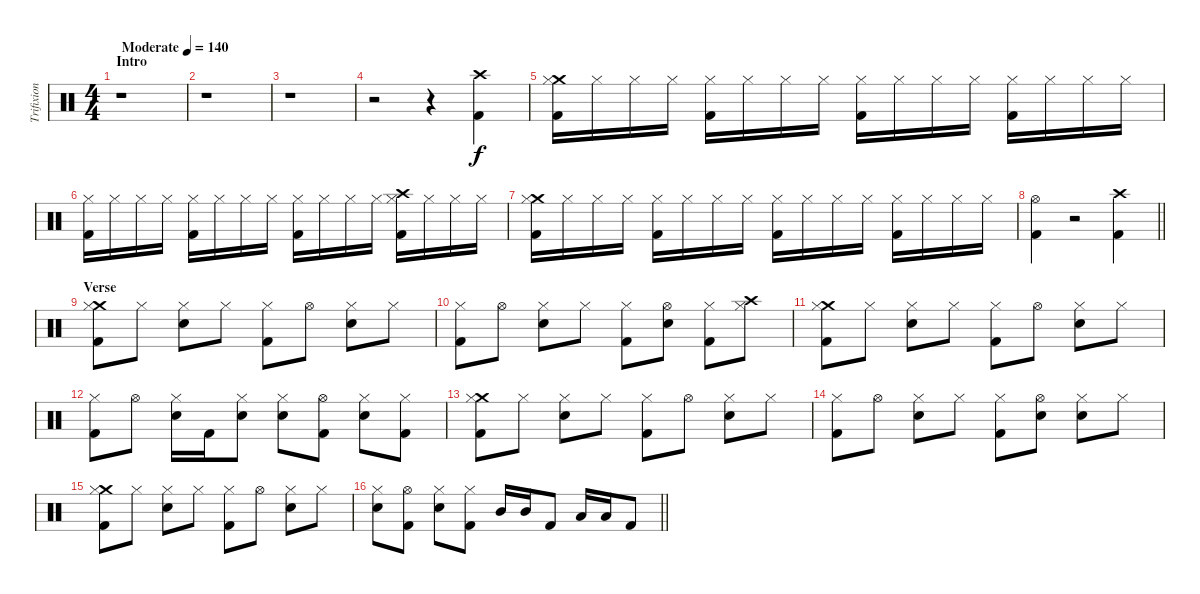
\track ("Trifixion of the Horned King" "Trifixion ") {instrument percussion}
\staff {score}
\articulation defaults
\ts (4 4)
\section ("" "Intro")
\tempo (140 "Moderate")
\clef neutral
\ks c
r.1{dy f} |
r.1 |
r.1 |
r.2 r.4 ("Crash high (hit)" "Kick (hit) 2").4 |
("Crash medium (hit)" "Hi-Hat (closed)" "Kick (hit) 2").16 "Hi-Hat (closed)".16 "Hi-Hat (closed)".16 "Hi-Hat (closed)".16 ("Hi-Hat (closed)" "Kick (hit) 2").16 "Hi-Hat (closed)".16 "Hi-Hat (closed)".16 "Hi-Hat (closed)".16 ("Hi-Hat (closed)" "Kick (hit) 2").16 "Hi-Hat (closed)".16 "Hi-Hat (closed)".16 "Hi-Hat (closed)".16 ("Hi-Hat (closed)" "Kick (hit) 2").16 "Hi-Hat (closed)".16 "Hi-Hat (closed)".16 "Hi-Hat (closed)".16 |
("Hi-Hat (closed)" "Kick (hit) 2").16 "Hi-Hat (closed)".16 "Hi-Hat (closed)".16 "Hi-Hat (closed)".16 ("Hi-Hat (closed)" "Kick (hit) 2").16 "Hi-Hat (closed)".16 "Hi-Hat (closed)".16 "Hi-Hat (closed)".16 ("Hi-Hat (closed)" "Kick (hit) 2").16 "Hi-Hat (closed)".16 "Hi-Hat (closed)".16 "Hi-Hat (closed)".16 ("Crash high (hit)" "Hi-Hat (closed)" "Kick (hit) 2").16 "Hi-Hat (closed)".16 "Hi-Hat (closed)".16 "Hi-Hat (closed)".16 |
("Crash medium (hit)" "Hi-Hat (closed)" "Kick (hit) 2").16 "Hi-Hat (closed)".16 "Hi-Hat (closed)".16 "Hi-Hat (closed)".16 ("Hi-Hat (closed)" "Kick (hit) 2").16 "Hi-Hat (closed)".16 "Hi-Hat (closed)".16 "Hi-Hat (closed)".16 ("Hi-Hat (closed)" "Kick (hit) 2").16 "Hi-Hat (closed)".16 "Hi-Hat (closed)".16 "Hi-Hat (closed)".16 ("Hi-Hat (closed)" "Kick (hit) 2").16 "Hi-Hat (closed)".16 "Hi-Hat (closed)".16 "Hi-Hat (closed)".16 |
\barLineRight lightlight
("Hi-Hat (open)" "Kick (hit) 2").4 r.2 ("Crash high (hit)" "Kick (hit) 2").4 |
\section ("" "Verse")
("Crash medium (hit)" "Hi-Hat (closed)" "Kick (hit) 2").8 "Hi-Hat (closed)".8 ("Hi-Hat (closed)" "Electric Snare (hit)").8 "Hi-Hat (closed)".8 ("Hi-Hat (closed)" "Kick (hit) 2").8 "Hi-Hat (open)".8 ("Hi-Hat (closed)" "Electric Snare (hit)").8 "Hi-Hat (closed)".8 |
("Hi-Hat (closed)" "Kick (hit) 2").8 "Hi-Hat (open)".8 ("Hi-Hat (closed)" "Electric Snare (hit)").8 "Hi-Hat (closed)".8 ("Hi-Hat (closed)" "Kick (hit) 2").8 ("Hi-Hat (open)" "Electric Snare (hit)").8 ("Hi-Hat (closed)" "Kick (hit) 2").8 ("Crash high (hit)" "Hi-Hat (closed)").8 |
("Crash medium (hit)" "Hi-Hat (closed)" "Kick (hit) 2").8 "Hi-Hat (closed)".8 ("Hi-Hat (closed)" "Electric Snare (hit)").8 "Hi-Hat (closed)".8 ("Hi-Hat (closed)" "Kick (hit) 2").8 "Hi-Hat (open)".8 ("Hi-Hat (closed)" "Electric Snare (hit)").8 "Hi-Hat (closed)".8 |
("Hi-Hat (closed)" "Kick (hit) 2").8 "Hi-Hat (open)".8 ("Hi-Hat (closed)" "Electric Snare (hit)").16 "Kick (hit) 2".16 ("Hi-Hat (closed)" "Electric Snare (hit)").8 ("Hi-Hat (closed)" "Electric Snare (hit)").8 ("Hi-Hat (open)" "Kick (hit) 2").8 ("Hi-Hat (closed)" "Electric Snare (hit)").8 ("Hi-Hat (closed)" "Kick (hit) 2").8 |
("Crash medium (hit)" "Hi-Hat (closed)" "Kick (hit) 2").8 "Hi-Hat (closed)".8 ("Hi-Hat (closed)" "Electric Snare (hit)").8 "Hi-Hat (closed)".8 ("Hi-Hat (closed)" "Kick (hit) 2").8 "Hi-Hat (open)".8 ("Hi-Hat (closed)" "Electric Snare (hit)").8 "Hi-Hat (closed)".8 |
("Hi-Hat (closed)" "Kick (hit) 2").8 "Hi-Hat (open)".8 ("Hi-Hat (closed)" "Electric Snare (hit)").8 "Hi-Hat (closed)".8 ("Hi-Hat (closed)" "Kick (hit) 2").8 ("Hi-Hat (open)" "Electric Snare (hit)").8 ("Hi-Hat (closed)" "Electric Snare (hit)").8 "Hi-Hat (closed)".8 |
("Crash medium (hit)" "Hi-Hat (closed)" "Kick (hit) 2").8 "Hi-Hat (closed)".8 ("Hi-Hat (closed)" "Electric Snare (hit)").8 "Hi-Hat (closed)".8 ("Hi-Hat (closed)" "Kick (hit) 2").8 "Hi-Hat (open)".8 ("Hi-Hat (closed)" "Electric Snare (hit)").8 "Hi-Hat (closed)".8 |
\barLineRight lightlight
("Hi-Hat (closed)" "Electric Snare (hit)").8 ("Hi-Hat (open)" "Kick (hit) 2").8 ("Hi-Hat (closed)" "Electric Snare (hit)").8 ("Hi-Hat (closed)" "Kick (hit) 2").8 "Mid Tom (hit)".16 "Mid Tom (hit)".16 "Kick (hit) 2".8 "Low Tom (hit)".16 "Low Tom (hit)".16 "Kick (hit) 2".8
